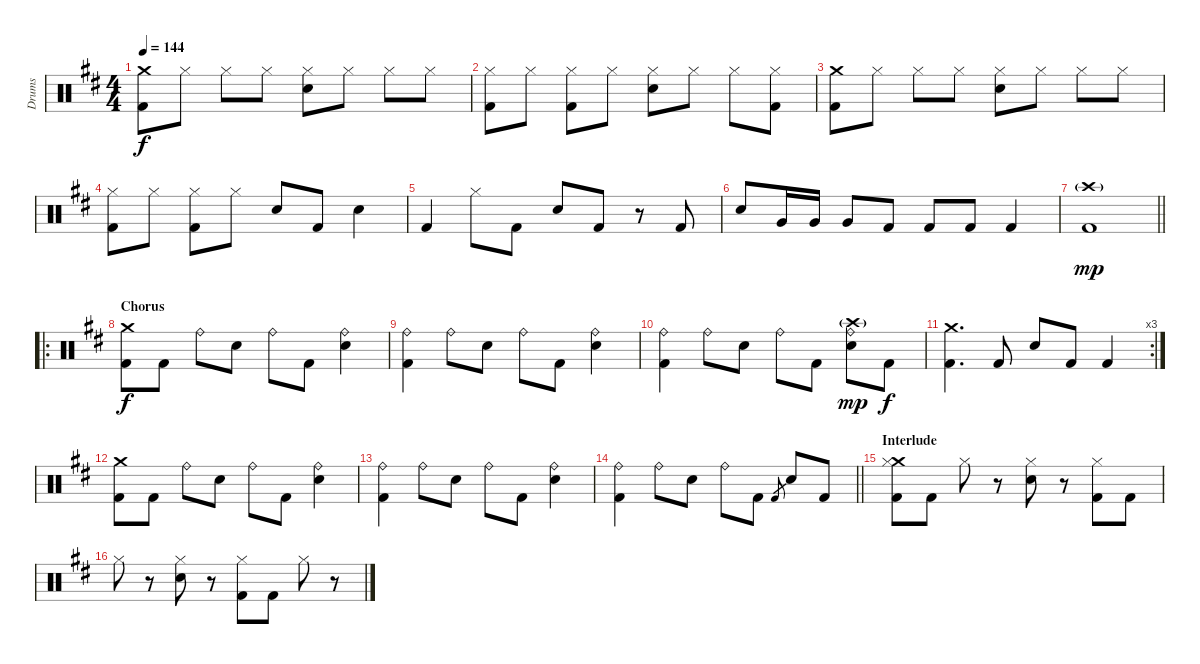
\track ("Drums" "Drums") {instrument percussion}
\staff {score}
\articulation defaults
\ts (4 4)
\tempo 144
\clef neutral
\ks d
("Crash medium (hit)" "Kick (hit) 2").8{dy f} "Hi-Hat (closed)".8 "Hi-Hat (closed)".8 "Hi-Hat (closed)".8 ("Hi-Hat (closed)" "Snare (hit) 2").8 "Hi-Hat (closed)".8 "Hi-Hat (closed)".8 "Hi-Hat (closed)".8 |
("Hi-Hat (closed)" "Kick (hit) 2").8 "Hi-Hat (closed)".8 ("Hi-Hat (closed)" "Kick (hit) 2").8 "Hi-Hat (closed)".8 ("Hi-Hat (closed)" "Snare (hit) 2").8 "Hi-Hat (closed)".8 "Hi-Hat (closed)".8 ("Hi-Hat (closed)" "Kick (hit) 2").8 |
("Crash medium (hit)" "Kick (hit) 2").8 "Hi-Hat (closed)".8 "Hi-Hat (closed)".8 "Hi-Hat (closed)".8 ("Hi-Hat (closed)" "Snare (hit) 2").8 "Hi-Hat (closed)".8 "Hi-Hat (closed)".8 "Hi-Hat (closed)".8 |
("Hi-Hat (closed)" "Kick (hit) 2").8 "Hi-Hat (closed)".8 ("Hi-Hat (closed)" "Kick (hit) 2").8 "Hi-Hat (closed)".8 "Snare (hit) 2".8 "Kick (hit) 2".8 "Snare (hit) 2".4 |
"Kick (hit) 2".4 "Hi-Hat (closed)".8 "Kick (hit) 2".8 "Snare (hit) 2".8 "Kick (hit) 2".8 r.8 "Kick (hit) 2".8 |
"Snare (hit) 2".8 "Very Low Tom (hit)".16 "Very Low Tom (hit)".16 "Very Low Tom (hit)".8 "Kick (hit) 2".8 "Kick (hit) 2".8 "Kick (hit) 2".8 "Kick (hit) 2".4 |
\barLineRight lightlight
("Crash high (hit)"{g} "Kick (hit) 2").1{dy mp} |
\ro
\section ("" "Chorus")
("Crash medium (hit)" "Kick (hit) 2").8{dy f} "Kick (hit) 2".8 "Ride (bell)".8 "Snare (hit) 2".8 "Ride (bell)".8 "Kick (hit) 2".8 ("Ride (bell)" "Snare (hit) 2").4 |
("Ride (bell)" "Kick (hit) 2").4 "Ride (bell)".8 "Snare (hit) 2".8 "Ride (bell)".8 "Kick (hit) 2".8 ("Ride (bell)" "Snare (hit) 2").4 |
("Ride (bell)" "Kick (hit) 2").4 "Ride (bell)".8 "Snare (hit) 2".8 "Ride (bell)".8 "Kick (hit) 2".8 ("Crash high (hit)"{g} "Ride (bell)" "Snare (hit) 2").8{dy mp} "Kick (hit) 2".8{dy f} |
\rc 3
("Crash medium (hit)" "Kick (hit) 2").4{d} "Kick (hit) 2".8 "Snare (hit) 2".8 "Kick (hit) 2".8 "Kick (hit) 2".4 |
("Crash medium (hit)" "Kick (hit) 2").8 "Kick (hit) 2".8 "Ride (bell)".8 "Snare (hit) 2".8 "Ride (bell)".8 "Kick (hit) 2".8 ("Ride (bell)" "Snare (hit) 2").4 |
("Ride (bell)" "Kick (hit) 2").4 "Ride (bell)".8 "Snare (hit) 2".8 "Ride (bell)".8 "Kick (hit) 2".8 ("Ride (bell)" "Snare (hit) 2").4 |
\barLineRight lightlight
("Ride (bell)" "Kick (hit) 2").4 "Ride (bell)".8 "Snare (hit) 2".8 "Ride (bell)".8 "Kick (hit) 2".8 "Kick (hit) 2".8{gr} "Snare (hit) 2".8 "Kick (hit) 2".8 |
\section ("" "Interlude")
("Crash medium (hit)" "Hi-Hat (closed)" "Kick (hit) 2").8 "Kick (hit) 2".8 "Hi-Hat (closed)".8 r.8 ("Hi-Hat (closed)" "Snare (hit) 2").8 r.8 ("Hi-Hat (closed)" "Kick (hit) 2").8 "Kick (hit) 2".8 |
"Hi-Hat (closed)".8 r.8 ("Hi-Hat (closed)" "Snare (hit) 2").8 r.8 ("Hi-Hat (closed)" "Kick (hit) 2").8 "Kick (hit) 2".8 "Hi-Hat (closed)".8 r.8
